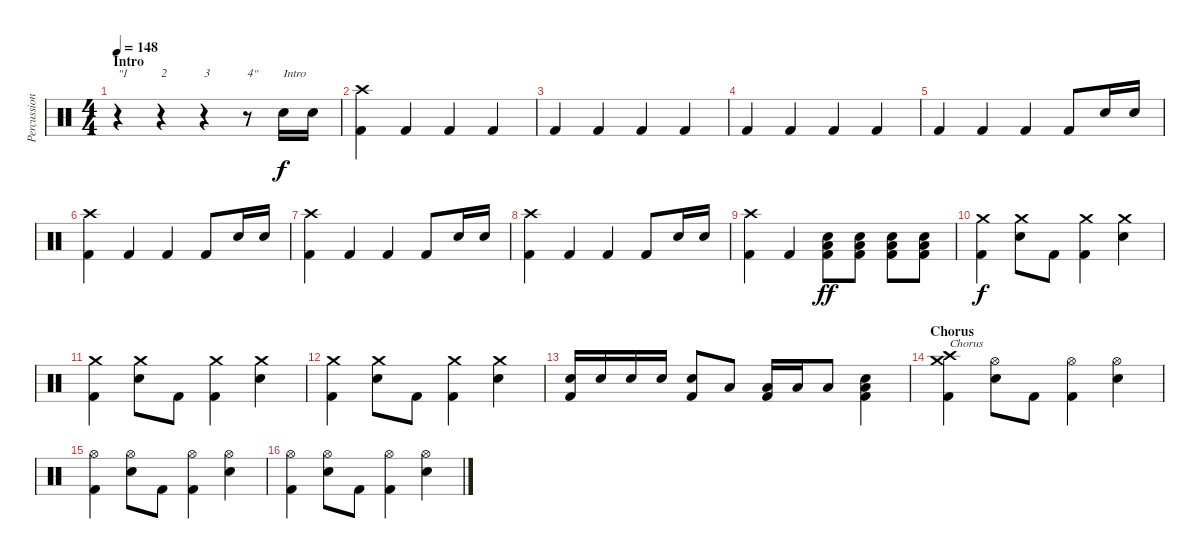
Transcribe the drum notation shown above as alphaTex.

\track ("Percussion" "Percussion") {instrument percussion}
\staff {score}
\articulation defaults
\ts (4 4)
\section ("" "Intro")
\tempo 148
\clef neutral
\ks c
r.4{txt "\"1" dy f} r.4{txt "2"} r.4{txt "3"} r.8{txt "4\""} "Electric Snare (hit)".16{txt "Intro"} "Electric Snare (hit)".16 |
("Crash high (hit)" "Kick (hit) 2").4 "Kick (hit) 2".4 "Kick (hit) 2".4 "Kick (hit) 2".4 |
"Kick (hit) 2".4 "Kick (hit) 2".4 "Kick (hit) 2".4 "Kick (hit) 2".4 |
"Kick (hit) 2".4 "Kick (hit) 2".4 "Kick (hit) 2".4 "Kick (hit) 2".4 |
"Kick (hit) 2".4 "Kick (hit) 2".4 "Kick (hit) 2".4 "Kick (hit) 2".8 "Electric Snare (hit)".16 "Electric Snare (hit)".16 |
("Crash high (hit)" "Kick (hit) 2").4 "Kick (hit) 2".4 "Kick (hit) 2".4 "Kick (hit) 2".8 "Electric Snare (hit)".16 "Electric Snare (hit)".16 |
("Crash high (hit)" "Kick (hit) 2").4 "Kick (hit) 2".4 "Kick (hit) 2".4 "Kick (hit) 2".8 "Electric Snare (hit)".16 "Electric Snare (hit)".16 |
("Crash high (hit)" "Kick (hit) 2").4 "Kick (hit) 2".4 "Kick (hit) 2".4 "Kick (hit) 2".8 "Electric Snare (hit)".16 "Electric Snare (hit)".16 |
("Crash high (hit)" "Kick (hit) 2").4 "Kick (hit) 2".4 ("Electric Snare (hit)" "Low Floor Tom (hit)" "Kick (hit) 2").8{dy ff} ("Electric Snare (hit)" "Low Floor Tom (hit)" "Kick (hit) 2").8 ("Electric Snare (hit)" "Low Floor Tom (hit)" "Kick (hit) 2").8 ("Electric Snare (hit)" "Low Floor Tom (hit)" "Kick (hit) 2").8 |
("Crash medium (hit)" "Kick (hit) 2").4{dy f} ("Crash medium (hit)" "Electric Snare (hit)").8 "Kick (hit) 2".8 ("Crash medium (hit)" "Kick (hit) 2").4 ("Crash medium (hit)" "Electric Snare (hit)").4 |
("Crash medium (hit)" "Kick (hit) 2").4 ("Crash medium (hit)" "Electric Snare (hit)").8 "Kick (hit) 2".8 ("Crash medium (hit)" "Kick (hit) 2").4 ("Crash medium (hit)" "Electric Snare (hit)").4 |
("Crash medium (hit)" "Kick (hit) 2").4 ("Crash medium (hit)" "Electric Snare (hit)").8 "Kick (hit) 2".8 ("Crash medium (hit)" "Kick (hit) 2").4 ("Crash medium (hit)" "Electric Snare (hit)").4 |
("Electric Snare (hit)" "Kick (hit) 2").16 "Electric Snare (hit)".16 "Electric Snare (hit)".16 "Electric Snare (hit)".16 ("Electric Snare (hit)" "Kick (hit) 2").8 "Low Tom (hit)".8 ("Low Floor Tom (hit)" "Kick (hit) 2").16 "Low Floor Tom (hit)".16 "Low Floor Tom (hit)".8 ("Electric Snare (hit)" "Low Floor Tom (hit)" "Kick (hit) 2").4 |
\section ("" "Chorus")
("Crash medium (hit)" "Crash high (hit)" "Kick (hit) 2").4{txt "Chorus"} ("Hi-Hat (open)" "Electric Snare (hit)").8 "Kick (hit) 2".8 ("Hi-Hat (open)" "Kick (hit) 2").4 ("Hi-Hat (open)" "Electric Snare (hit)").4 |
("Hi-Hat (open)" "Kick (hit) 2").4 ("Hi-Hat (open)" "Electric Snare (hit)").8 "Kick (hit) 2".8 ("Hi-Hat (open)" "Kick (hit) 2").4 ("Hi-Hat (open)" "Electric Snare (hit)").4 |
("Hi-Hat (open)" "Kick (hit) 2").4 ("Hi-Hat (open)" "Electric Snare (hit)").8 "Kick (hit) 2".8 ("Hi-Hat (open)" "Kick (hit) 2").4 ("Hi-Hat (open)" "Electric Snare (hit)").4
